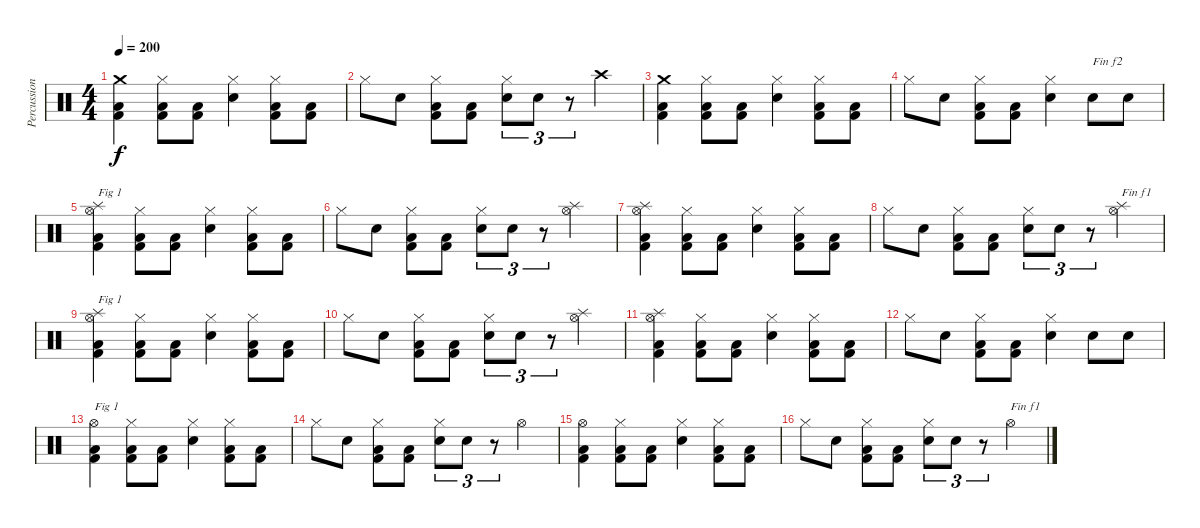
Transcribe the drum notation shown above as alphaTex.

\track ("Percussions" "Percussion") {instrument percussion}
\staff {score}
\articulation defaults
\ts (4 4)
\tempo 200
\clef neutral
\ks c
("Kick (hit) 2" "Low Floor Tom (hit)" "Crash medium (hit)").4{dy f} ("Kick (hit) 2" "Low Floor Tom (hit)" "Hi-Hat (closed)").8 ("Kick (hit) 2" "Low Floor Tom (hit)").8 ("Snare (hit) 2" "Hi-Hat (closed)").4 ("Kick (hit) 2" "Low Floor Tom (hit)" "Hi-Hat (closed)").8 ("Kick (hit) 2" "Low Floor Tom (hit)").8 |
"Hi-Hat (closed)".8 "Snare (hit) 2".8 ("Kick (hit) 2" "Low Floor Tom (hit)" "Hi-Hat (closed)").8 ("Kick (hit) 2" "Low Floor Tom (hit)").8 ("Snare (hit) 2" "Hi-Hat (closed)").8{tu (3 2)} "Snare (hit) 2".8{tu (3 2)} r.8{tu (3 2)} "Crash high (hit)".4 |
("Kick (hit) 2" "Low Floor Tom (hit)" "Crash medium (hit)").4 ("Kick (hit) 2" "Low Floor Tom (hit)" "Hi-Hat (closed)").8 ("Kick (hit) 2" "Low Floor Tom (hit)").8 ("Snare (hit) 2" "Hi-Hat (closed)").4 ("Kick (hit) 2" "Low Floor Tom (hit)" "Hi-Hat (closed)").8 ("Kick (hit) 2" "Low Floor Tom (hit)").8 |
"Hi-Hat (closed)".8 "Snare (hit) 2".8 ("Kick (hit) 2" "Low Floor Tom (hit)" "Hi-Hat (closed)").8 ("Kick (hit) 2" "Low Floor Tom (hit)").8 ("Snare (hit) 2" "Hi-Hat (closed)").4 "Snare (hit) 2".8{txt "Fin f2"} "Snare (hit) 2".8 |
("Kick (hit) 2" "Low Floor Tom (hit)" "Hi-Hat (open)" "Splash (hit)").4{txt "Fig 1"} ("Kick (hit) 2" "Low Floor Tom (hit)" "Hi-Hat (closed)").8 ("Kick (hit) 2" "Low Floor Tom (hit)").8 ("Snare (hit) 2" "Hi-Hat (closed)").4 ("Kick (hit) 2" "Low Floor Tom (hit)" "Hi-Hat (closed)").8 ("Kick (hit) 2" "Low Floor Tom (hit)").8 |
"Hi-Hat (closed)".8 "Snare (hit) 2".8 ("Kick (hit) 2" "Low Floor Tom (hit)" "Hi-Hat (closed)").8 ("Kick (hit) 2" "Low Floor Tom (hit)").8 ("Snare (hit) 2" "Hi-Hat (closed)").8{tu (3 2)} "Snare (hit) 2".8{tu (3 2)} r.8{tu (3 2)} ("Hi-Hat (open)" "Splash (hit)").4 |
("Kick (hit) 2" "Low Floor Tom (hit)" "Hi-Hat (open)" "Splash (hit)").4 ("Kick (hit) 2" "Low Floor Tom (hit)" "Hi-Hat (closed)").8 ("Kick (hit) 2" "Low Floor Tom (hit)").8 ("Snare (hit) 2" "Hi-Hat (closed)").4 ("Kick (hit) 2" "Low Floor Tom (hit)" "Hi-Hat (closed)").8 ("Kick (hit) 2" "Low Floor Tom (hit)").8 |
"Hi-Hat (closed)".8 "Snare (hit) 2".8 ("Kick (hit) 2" "Low Floor Tom (hit)" "Hi-Hat (closed)").8 ("Kick (hit) 2" "Low Floor Tom (hit)").8 ("Snare (hit) 2" "Hi-Hat (closed)").8{tu (3 2)} "Snare (hit) 2".8{tu (3 2)} r.8{tu (3 2)} ("Hi-Hat (open)" "Splash (hit)").4{txt "Fin f1"} |
("Kick (hit) 2" "Low Floor Tom (hit)" "Hi-Hat (open)" "Splash (hit)").4{txt "Fig 1"} ("Kick (hit) 2" "Low Floor Tom (hit)" "Hi-Hat (closed)").8 ("Kick (hit) 2" "Low Floor Tom (hit)").8 ("Snare (hit) 2" "Hi-Hat (closed)").4 ("Kick (hit) 2" "Low Floor Tom (hit)" "Hi-Hat (closed)").8 ("Kick (hit) 2" "Low Floor Tom (hit)").8 |
"Hi-Hat (closed)".8 "Snare (hit) 2".8 ("Kick (hit) 2" "Low Floor Tom (hit)" "Hi-Hat (closed)").8 ("Kick (hit) 2" "Low Floor Tom (hit)").8 ("Snare (hit) 2" "Hi-Hat (closed)").8{tu (3 2)} "Snare (hit) 2".8{tu (3 2)} r.8{tu (3 2)} ("Hi-Hat (open)" "Splash (hit)").4 |
("Kick (hit) 2" "Low Floor Tom (hit)" "Hi-Hat (open)" "Splash (hit)").4 ("Kick (hit) 2" "Low Floor Tom (hit)" "Hi-Hat (closed)").8 ("Kick (hit) 2" "Low Floor Tom (hit)").8 ("Snare (hit) 2" "Hi-Hat (closed)").4 ("Kick (hit) 2" "Low Floor Tom (hit)" "Hi-Hat (closed)").8 ("Kick (hit) 2" "Low Floor Tom (hit)").8 |
"Hi-Hat (closed)".8 "Snare (hit) 2".8 ("Kick (hit) 2" "Low Floor Tom (hit)" "Hi-Hat (closed)").8 ("Kick (hit) 2" "Low Floor Tom (hit)").8 ("Snare (hit) 2" "Hi-Hat (closed)").4 "Snare (hit) 2".8 "Snare (hit) 2".8 |
("Kick (hit) 2" "Low Floor Tom (hit)" "Hi-Hat (open)").4{txt "Fig 1"} ("Kick (hit) 2" "Low Floor Tom (hit)" "Hi-Hat (closed)").8 ("Kick (hit) 2" "Low Floor Tom (hit)").8 ("Snare (hit) 2" "Hi-Hat (closed)").4 ("Kick (hit) 2" "Low Floor Tom (hit)" "Hi-Hat (closed)").8 ("Kick (hit) 2" "Low Floor Tom (hit)").8 |
"Hi-Hat (closed)".8 "Snare (hit) 2".8 ("Kick (hit) 2" "Low Floor Tom (hit)" "Hi-Hat (closed)").8 ("Kick (hit) 2" "Low Floor Tom (hit)").8 ("Snare (hit) 2" "Hi-Hat (closed)").8{tu (3 2)} "Snare (hit) 2".8{tu (3 2)} r.8{tu (3 2)} "Hi-Hat (open)".4 |
("Kick (hit) 2" "Low Floor Tom (hit)" "Hi-Hat (open)").4 ("Kick (hit) 2" "Low Floor Tom (hit)" "Hi-Hat (closed)").8 ("Kick (hit) 2" "Low Floor Tom (hit)").8 ("Snare (hit) 2" "Hi-Hat (closed)").4 ("Kick (hit) 2" "Low Floor Tom (hit)" "Hi-Hat (closed)").8 ("Kick (hit) 2" "Low Floor Tom (hit)").8 |
"Hi-Hat (closed)".8 "Snare (hit) 2".8 ("Kick (hit) 2" "Low Floor Tom (hit)" "Hi-Hat (closed)").8 ("Kick (hit) 2" "Low Floor Tom (hit)").8 ("Snare (hit) 2" "Hi-Hat (closed)").8{tu (3 2)} "Snare (hit) 2".8{tu (3 2)} r.8{tu (3 2)} "Hi-Hat (open)".4{txt "Fin f1"}
